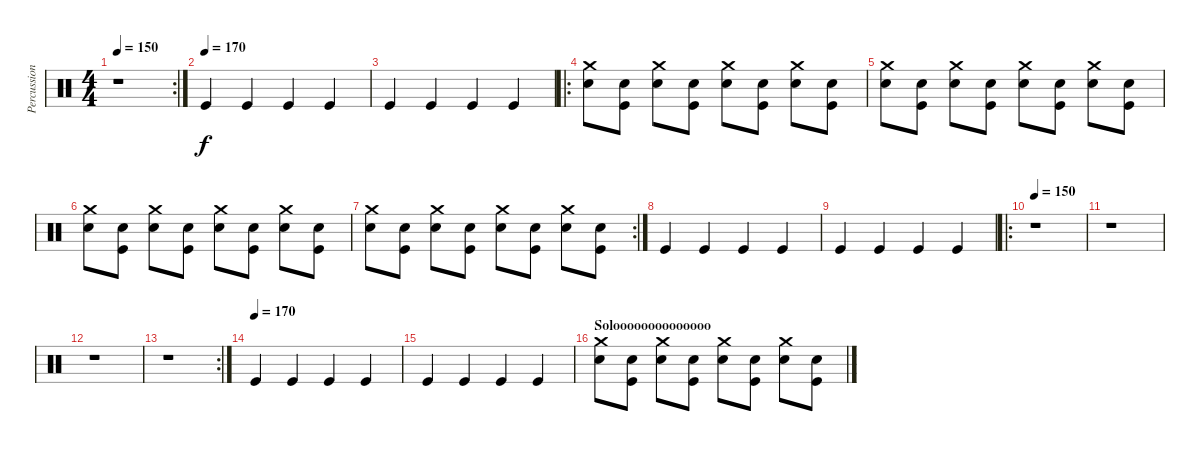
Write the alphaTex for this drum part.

\track ("Percussion" "Percussion") {instrument percussion}
\staff {score}
\articulation defaults
\rc 2
\ts (4 4)
\tempo 150
\clef neutral
\ks c
r.1{dy f} |
\tempo (170)
"Kick (hit)".4 "Kick (hit)".4 "Kick (hit)".4 "Kick (hit)".4 |
"Kick (hit)".4 "Kick (hit)".4 "Kick (hit)".4 "Kick (hit)".4 |
\ro
("Electric Snare (hit)" "Crash medium (hit)").8 ("Electric Snare (hit)" "Kick (hit)").8 ("Electric Snare (hit)" "Crash medium (hit)").8 ("Electric Snare (hit)" "Kick (hit)").8 ("Electric Snare (hit)" "Crash medium (hit)").8 ("Electric Snare (hit)" "Kick (hit)").8 ("Electric Snare (hit)" "Crash medium (hit)").8 ("Electric Snare (hit)" "Kick (hit)").8 |
("Electric Snare (hit)" "Crash medium (hit)").8 ("Electric Snare (hit)" "Kick (hit)").8 ("Electric Snare (hit)" "Crash medium (hit)").8 ("Electric Snare (hit)" "Kick (hit)").8 ("Electric Snare (hit)" "Crash medium (hit)").8 ("Electric Snare (hit)" "Kick (hit)").8 ("Electric Snare (hit)" "Crash medium (hit)").8 ("Electric Snare (hit)" "Kick (hit)").8 |
("Electric Snare (hit)" "Crash medium (hit)").8 ("Electric Snare (hit)" "Kick (hit)").8 ("Electric Snare (hit)" "Crash medium (hit)").8 ("Electric Snare (hit)" "Kick (hit)").8 ("Electric Snare (hit)" "Crash medium (hit)").8 ("Electric Snare (hit)" "Kick (hit)").8 ("Electric Snare (hit)" "Crash medium (hit)").8 ("Electric Snare (hit)" "Kick (hit)").8 |
\rc 2
("Electric Snare (hit)" "Crash medium (hit)").8 ("Electric Snare (hit)" "Kick (hit)").8 ("Electric Snare (hit)" "Crash medium (hit)").8 ("Electric Snare (hit)" "Kick (hit)").8 ("Electric Snare (hit)" "Crash medium (hit)").8 ("Electric Snare (hit)" "Kick (hit)").8 ("Electric Snare (hit)" "Crash medium (hit)").8 ("Electric Snare (hit)" "Kick (hit)").8 |
"Kick (hit)".4 "Kick (hit)".4 "Kick (hit)".4 "Kick (hit)".4 |
"Kick (hit)".4 "Kick (hit)".4 "Kick (hit)".4 "Kick (hit)".4 |
\ro
\tempo 150
r.1 |
r.1 |
r.1 |
\rc 2
r.1 |
\tempo (170)
"Kick (hit)".4 "Kick (hit)".4 "Kick (hit)".4 "Kick (hit)".4 |
"Kick (hit)".4 "Kick (hit)".4 "Kick (hit)".4 "Kick (hit)".4 |
\section ("" "Soloooooooooooooo")
("Electric Snare (hit)" "Crash medium (hit)").8 ("Electric Snare (hit)" "Kick (hit)").8 ("Electric Snare (hit)" "Crash medium (hit)").8 ("Electric Snare (hit)" "Kick (hit)").8 ("Electric Snare (hit)" "Crash medium (hit)").8 ("Electric Snare (hit)" "Kick (hit)").8 ("Electric Snare (hit)" "Crash medium (hit)").8 ("Electric Snare (hit)" "Kick (hit)").8
